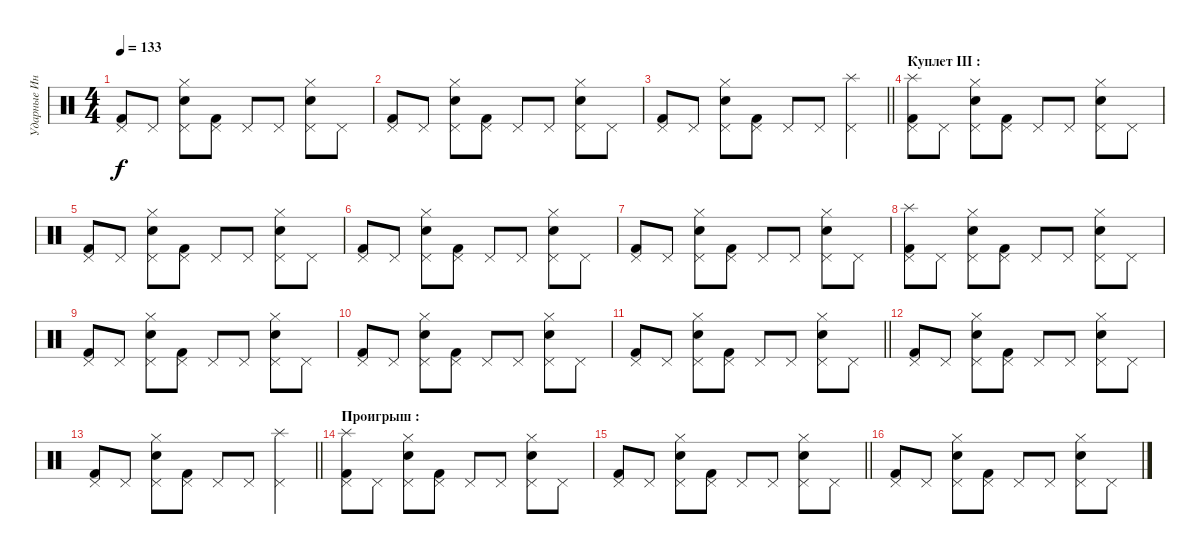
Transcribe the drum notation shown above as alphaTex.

\track ("Ударные Инструменты" "Ударные Ин") {instrument percussion}
\staff {score}
\articulation defaults
\ts (4 4)
\tempo 133
\clef neutral
\ks c
("Pedal Hi-Hat (hit)" "Kick (hit) 2").8{dy f} "Pedal Hi-Hat (hit)".8 ("Electric Snare (hit)" "Pedal Hi-Hat (hit)" "Hi-Hat (closed)").8 ("Pedal Hi-Hat (hit)" "Kick (hit) 2").8 "Pedal Hi-Hat (hit)".8 "Pedal Hi-Hat (hit)".8 ("Electric Snare (hit)" "Pedal Hi-Hat (hit)" "Hi-Hat (closed)").8 "Pedal Hi-Hat (hit)".8 |
("Pedal Hi-Hat (hit)" "Kick (hit) 2").8 "Pedal Hi-Hat (hit)".8 ("Electric Snare (hit)" "Pedal Hi-Hat (hit)" "Hi-Hat (closed)").8 ("Pedal Hi-Hat (hit)" "Kick (hit) 2").8 "Pedal Hi-Hat (hit)".8 "Pedal Hi-Hat (hit)".8 ("Electric Snare (hit)" "Pedal Hi-Hat (hit)" "Hi-Hat (closed)").8 "Pedal Hi-Hat (hit)".8 |
\barLineRight lightlight
("Pedal Hi-Hat (hit)" "Kick (hit) 2").8 "Pedal Hi-Hat (hit)".8 ("Electric Snare (hit)" "Pedal Hi-Hat (hit)" "Hi-Hat (closed)").8 ("Pedal Hi-Hat (hit)" "Kick (hit) 2").8 "Pedal Hi-Hat (hit)".8 "Pedal Hi-Hat (hit)".8 ("Splash (hit)" "Pedal Hi-Hat (hit)").4 |
\section ("" "Куплет III :")
("Splash (hit)" "Pedal Hi-Hat (hit)" "Kick (hit) 2").8 "Pedal Hi-Hat (hit)".8 ("Electric Snare (hit)" "Pedal Hi-Hat (hit)" "Hi-Hat (closed)").8 ("Pedal Hi-Hat (hit)" "Kick (hit) 2").8 "Pedal Hi-Hat (hit)".8 "Pedal Hi-Hat (hit)".8 ("Electric Snare (hit)" "Pedal Hi-Hat (hit)" "Hi-Hat (closed)").8 "Pedal Hi-Hat (hit)".8 |
("Pedal Hi-Hat (hit)" "Kick (hit) 2").8 "Pedal Hi-Hat (hit)".8 ("Electric Snare (hit)" "Pedal Hi-Hat (hit)" "Hi-Hat (closed)").8 ("Pedal Hi-Hat (hit)" "Kick (hit) 2").8 "Pedal Hi-Hat (hit)".8 "Pedal Hi-Hat (hit)".8 ("Electric Snare (hit)" "Pedal Hi-Hat (hit)" "Hi-Hat (closed)").8 "Pedal Hi-Hat (hit)".8 |
("Pedal Hi-Hat (hit)" "Kick (hit) 2").8 "Pedal Hi-Hat (hit)".8 ("Electric Snare (hit)" "Pedal Hi-Hat (hit)" "Hi-Hat (closed)").8 ("Pedal Hi-Hat (hit)" "Kick (hit) 2").8 "Pedal Hi-Hat (hit)".8 "Pedal Hi-Hat (hit)".8 ("Electric Snare (hit)" "Pedal Hi-Hat (hit)" "Hi-Hat (closed)").8 "Pedal Hi-Hat (hit)".8 |
("Pedal Hi-Hat (hit)" "Kick (hit) 2").8 "Pedal Hi-Hat (hit)".8 ("Electric Snare (hit)" "Pedal Hi-Hat (hit)" "Hi-Hat (closed)").8 ("Pedal Hi-Hat (hit)" "Kick (hit) 2").8 "Pedal Hi-Hat (hit)".8 "Pedal Hi-Hat (hit)".8 ("Electric Snare (hit)" "Pedal Hi-Hat (hit)" "Hi-Hat (closed)").8 "Pedal Hi-Hat (hit)".8 |
("Splash (hit)" "Pedal Hi-Hat (hit)" "Kick (hit) 2").8 "Pedal Hi-Hat (hit)".8 ("Electric Snare (hit)" "Pedal Hi-Hat (hit)" "Hi-Hat (closed)").8 ("Pedal Hi-Hat (hit)" "Kick (hit) 2").8 "Pedal Hi-Hat (hit)".8 "Pedal Hi-Hat (hit)".8 ("Electric Snare (hit)" "Pedal Hi-Hat (hit)" "Hi-Hat (closed)").8 "Pedal Hi-Hat (hit)".8 |
("Pedal Hi-Hat (hit)" "Kick (hit) 2").8 "Pedal Hi-Hat (hit)".8 ("Electric Snare (hit)" "Pedal Hi-Hat (hit)" "Hi-Hat (closed)").8 ("Pedal Hi-Hat (hit)" "Kick (hit) 2").8 "Pedal Hi-Hat (hit)".8 "Pedal Hi-Hat (hit)".8 ("Electric Snare (hit)" "Pedal Hi-Hat (hit)" "Hi-Hat (closed)").8 "Pedal Hi-Hat (hit)".8 |
("Pedal Hi-Hat (hit)" "Kick (hit) 2").8 "Pedal Hi-Hat (hit)".8 ("Electric Snare (hit)" "Pedal Hi-Hat (hit)" "Hi-Hat (closed)").8 ("Pedal Hi-Hat (hit)" "Kick (hit) 2").8 "Pedal Hi-Hat (hit)".8 "Pedal Hi-Hat (hit)".8 ("Electric Snare (hit)" "Pedal Hi-Hat (hit)" "Hi-Hat (closed)").8 "Pedal Hi-Hat (hit)".8 |
\barLineRight lightlight
("Pedal Hi-Hat (hit)" "Kick (hit) 2").8 "Pedal Hi-Hat (hit)".8 ("Electric Snare (hit)" "Pedal Hi-Hat (hit)" "Hi-Hat (closed)").8 ("Pedal Hi-Hat (hit)" "Kick (hit) 2").8 "Pedal Hi-Hat (hit)".8 "Pedal Hi-Hat (hit)".8 ("Electric Snare (hit)" "Pedal Hi-Hat (hit)" "Hi-Hat (closed)").8 "Pedal Hi-Hat (hit)".8 |
("Pedal Hi-Hat (hit)" "Kick (hit) 2").8 "Pedal Hi-Hat (hit)".8 ("Electric Snare (hit)" "Pedal Hi-Hat (hit)" "Hi-Hat (closed)").8 ("Pedal Hi-Hat (hit)" "Kick (hit) 2").8 "Pedal Hi-Hat (hit)".8 "Pedal Hi-Hat (hit)".8 ("Electric Snare (hit)" "Pedal Hi-Hat (hit)" "Hi-Hat (closed)").8 "Pedal Hi-Hat (hit)".8 |
\barLineRight lightlight
("Pedal Hi-Hat (hit)" "Kick (hit) 2").8 "Pedal Hi-Hat (hit)".8 ("Electric Snare (hit)" "Pedal Hi-Hat (hit)" "Hi-Hat (closed)").8 ("Pedal Hi-Hat (hit)" "Kick (hit) 2").8 "Pedal Hi-Hat (hit)".8 "Pedal Hi-Hat (hit)".8 ("Splash (hit)" "Pedal Hi-Hat (hit)").4 |
\section ("" "Проигрыш :")
("Splash (hit)" "Pedal Hi-Hat (hit)" "Kick (hit) 2").8 "Pedal Hi-Hat (hit)".8 ("Electric Snare (hit)" "Pedal Hi-Hat (hit)" "Hi-Hat (closed)").8 ("Pedal Hi-Hat (hit)" "Kick (hit) 2").8 "Pedal Hi-Hat (hit)".8 "Pedal Hi-Hat (hit)".8 ("Electric Snare (hit)" "Pedal Hi-Hat (hit)" "Hi-Hat (closed)").8 "Pedal Hi-Hat (hit)".8 |
\barLineRight lightlight
("Pedal Hi-Hat (hit)" "Kick (hit) 2").8 "Pedal Hi-Hat (hit)".8 ("Electric Snare (hit)" "Pedal Hi-Hat (hit)" "Hi-Hat (closed)").8 ("Pedal Hi-Hat (hit)" "Kick (hit) 2").8 "Pedal Hi-Hat (hit)".8 "Pedal Hi-Hat (hit)".8 ("Electric Snare (hit)" "Pedal Hi-Hat (hit)" "Hi-Hat (closed)").8 "Pedal Hi-Hat (hit)".8 |
("Pedal Hi-Hat (hit)" "Kick (hit) 2").8 "Pedal Hi-Hat (hit)".8 ("Electric Snare (hit)" "Pedal Hi-Hat (hit)" "Hi-Hat (closed)").8 ("Pedal Hi-Hat (hit)" "Kick (hit) 2").8 "Pedal Hi-Hat (hit)".8 "Pedal Hi-Hat (hit)".8 ("Electric Snare (hit)" "Pedal Hi-Hat (hit)" "Hi-Hat (closed)").8 "Pedal Hi-Hat (hit)".8
